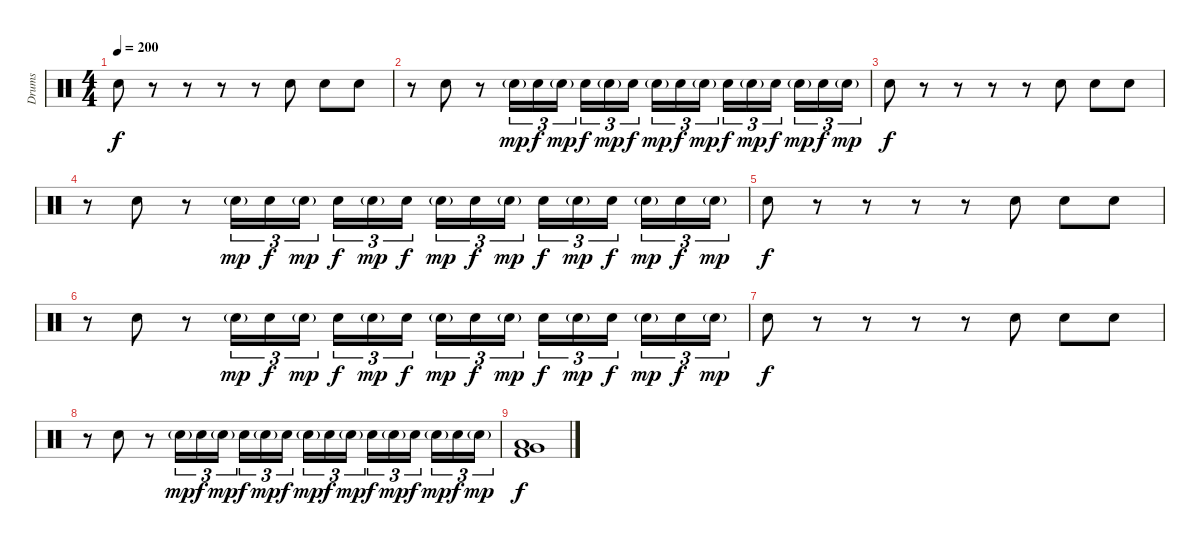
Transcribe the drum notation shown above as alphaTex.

\track ("Drums" "Drums") {instrument percussion}
\staff {score}
\articulation defaults
\ts (4 4)
\tempo 200
\clef neutral
\ks c "Electric Snare (hit)".8{dy f}
r.8 r.8 r.8 r.8 "Electric Snare (hit)".8 "Electric Snare (hit)".8 "Electric Snare (hit)".8 |
r.8 "Electric Snare (hit)".8 r.8 "Electric Snare (hit)"{g}.16{tu (3 2) dy mp} "Electric Snare (hit)".16{tu (3 2) dy f} "Electric Snare (hit)"{g}.16{tu (3 2) dy mp} "Electric Snare (hit)".16{tu (3 2) dy f} "Electric Snare (hit)"{g}.16{tu (3 2) dy mp} "Electric Snare (hit)".16{tu (3 2) dy f beam splitsecondary} "Electric Snare (hit)"{g}.16{tu (3 2) dy mp} "Electric Snare (hit)".16{tu (3 2) dy f} "Electric Snare (hit)"{g}.16{tu (3 2) dy mp} "Electric Snare (hit)".16{tu (3 2) dy f} "Electric Snare (hit)"{g}.16{tu (3 2) dy mp} "Electric Snare (hit)".16{tu (3 2) dy f beam splitsecondary} "Electric Snare (hit)"{g}.16{tu (3 2) dy mp} "Electric Snare (hit)".16{tu (3 2) dy f} "Electric Snare (hit)"{g}.16{tu (3 2) dy mp} |
"Electric Snare (hit)".8{dy f} r.8 r.8 r.8 r.8 "Electric Snare (hit)".8 "Electric Snare (hit)".8 "Electric Snare (hit)".8 |
r.8 "Electric Snare (hit)".8 r.8 "Electric Snare (hit)"{g}.16{tu (3 2) dy mp} "Electric Snare (hit)".16{tu (3 2) dy f} "Electric Snare (hit)"{g}.16{tu (3 2) dy mp} "Electric Snare (hit)".16{tu (3 2) dy f} "Electric Snare (hit)"{g}.16{tu (3 2) dy mp} "Electric Snare (hit)".16{tu (3 2) dy f beam splitsecondary} "Electric Snare (hit)"{g}.16{tu (3 2) dy mp} "Electric Snare (hit)".16{tu (3 2) dy f} "Electric Snare (hit)"{g}.16{tu (3 2) dy mp} "Electric Snare (hit)".16{tu (3 2) dy f} "Electric Snare (hit)"{g}.16{tu (3 2) dy mp} "Electric Snare (hit)".16{tu (3 2) dy f beam splitsecondary} "Electric Snare (hit)"{g}.16{tu (3 2) dy mp} "Electric Snare (hit)".16{tu (3 2) dy f} "Electric Snare (hit)"{g}.16{tu (3 2) dy mp} |
"Electric Snare (hit)".8{dy f} r.8 r.8 r.8 r.8 "Electric Snare (hit)".8 "Electric Snare (hit)".8 "Electric Snare (hit)".8 |
r.8 "Electric Snare (hit)".8 r.8 "Electric Snare (hit)"{g}.16{tu (3 2) dy mp} "Electric Snare (hit)".16{tu (3 2) dy f} "Electric Snare (hit)"{g}.16{tu (3 2) dy mp} "Electric Snare (hit)".16{tu (3 2) dy f} "Electric Snare (hit)"{g}.16{tu (3 2) dy mp} "Electric Snare (hit)".16{tu (3 2) dy f beam splitsecondary} "Electric Snare (hit)"{g}.16{tu (3 2) dy mp} "Electric Snare (hit)".16{tu (3 2) dy f} "Electric Snare (hit)"{g}.16{tu (3 2) dy mp} "Electric Snare (hit)".16{tu (3 2) dy f} "Electric Snare (hit)"{g}.16{tu (3 2) dy mp} "Electric Snare (hit)".16{tu (3 2) dy f beam splitsecondary} "Electric Snare (hit)"{g}.16{tu (3 2) dy mp} "Electric Snare (hit)".16{tu (3 2) dy f} "Electric Snare (hit)"{g}.16{tu (3 2) dy mp} |
"Electric Snare (hit)".8{dy f} r.8 r.8 r.8 r.8 "Electric Snare (hit)".8 "Electric Snare (hit)".8 "Electric Snare (hit)".8 |
r.8 "Electric Snare (hit)".8 r.8 "Electric Snare (hit)"{g}.16{tu (3 2) dy mp} "Electric Snare (hit)".16{tu (3 2) dy f} "Electric Snare (hit)"{g}.16{tu (3 2) dy mp} "Electric Snare (hit)".16{tu (3 2) dy f} "Electric Snare (hit)"{g}.16{tu (3 2) dy mp} "Electric Snare (hit)".16{tu (3 2) dy f beam splitsecondary} "Electric Snare (hit)"{g}.16{tu (3 2) dy mp} "Electric Snare (hit)".16{tu (3 2) dy f} "Electric Snare (hit)"{g}.16{tu (3 2) dy mp} "Electric Snare (hit)".16{tu (3 2) dy f} "Electric Snare (hit)"{g}.16{tu (3 2) dy mp} "Electric Snare (hit)".16{tu (3 2) dy f beam splitsecondary} "Electric Snare (hit)"{g}.16{tu (3 2) dy mp} "Electric Snare (hit)".16{tu (3 2) dy f} "Electric Snare (hit)"{g}.16{tu (3 2) dy mp} |
("Very Low Tom (hit)" "Low Floor Tom (hit)" "Kick (hit) 2").1{dy f}
